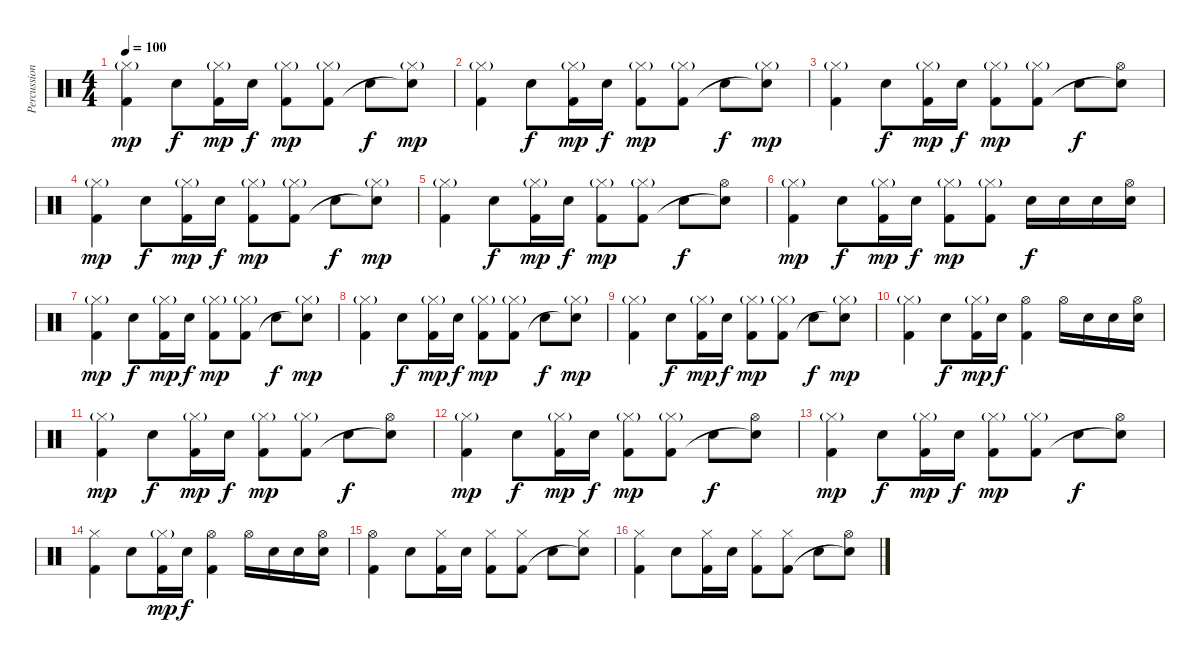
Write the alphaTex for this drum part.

\track ("Percussion" "Percussion") {instrument percussion}
\staff {score}
\articulation defaults
\ts (4 4)
\tempo 100
\clef neutral
\ks c
("Hi-Hat (closed)"{g} "Kick (hit) 2").4{dy mp} "Electric Snare (hit)".8{dy f} ("Hi-Hat (closed)"{g} "Kick (hit) 2").16{dy mp} "Electric Snare (hit)".16{dy f} ("Hi-Hat (closed)"{g} "Kick (hit) 2").8{dy mp} ("Hi-Hat (closed)"{g} "Kick (hit) 2").8 "Electric Snare (hit)".8{dy f} ("Hi-Hat (closed)"{g} "Snare (hit)"{t}).8{dy mp} |
("Hi-Hat (closed)"{g} "Kick (hit) 2").4 "Electric Snare (hit)".8{dy f} ("Hi-Hat (closed)"{g} "Kick (hit) 2").16{dy mp} "Electric Snare (hit)".16{dy f} ("Hi-Hat (closed)"{g} "Kick (hit) 2").8{dy mp} ("Hi-Hat (closed)"{g} "Kick (hit) 2").8 "Electric Snare (hit)".8{dy f} ("Hi-Hat (closed)"{g} "Snare (hit)"{t}).8{dy mp} |
("Hi-Hat (closed)"{g} "Kick (hit) 2").4 "Electric Snare (hit)".8{dy f} ("Hi-Hat (closed)"{g} "Kick (hit) 2").16{dy mp} "Electric Snare (hit)".16{dy f} ("Hi-Hat (closed)"{g} "Kick (hit) 2").8{dy mp} ("Hi-Hat (closed)"{g} "Kick (hit) 2").8 "Electric Snare (hit)".8{dy f} ("Hi-Hat (open)" "Snare (hit)"{t}).8 |
("Hi-Hat (closed)"{g} "Kick (hit) 2").4{dy mp} "Electric Snare (hit)".8{dy f} ("Hi-Hat (closed)"{g} "Kick (hit) 2").16{dy mp} "Electric Snare (hit)".16{dy f} ("Hi-Hat (closed)"{g} "Kick (hit) 2").8{dy mp} ("Hi-Hat (closed)"{g} "Kick (hit) 2").8 "Electric Snare (hit)".8{dy f} ("Hi-Hat (closed)"{g} "Snare (hit)"{t}).8{dy mp} |
("Hi-Hat (closed)"{g} "Kick (hit) 2").4 "Electric Snare (hit)".8{dy f} ("Hi-Hat (closed)"{g} "Kick (hit) 2").16{dy mp} "Electric Snare (hit)".16{dy f} ("Hi-Hat (closed)"{g} "Kick (hit) 2").8{dy mp} ("Hi-Hat (closed)"{g} "Kick (hit) 2").8 "Electric Snare (hit)".8{dy f} ("Hi-Hat (open)" "Snare (hit)"{t}).8 |
("Hi-Hat (closed)"{g} "Kick (hit) 2").4{dy mp} "Electric Snare (hit)".8{dy f} ("Hi-Hat (closed)"{g} "Kick (hit) 2").16{dy mp} "Electric Snare (hit)".16{dy f} ("Hi-Hat (closed)"{g} "Kick (hit) 2").8{dy mp} ("Hi-Hat (closed)"{g} "Kick (hit) 2").8 "Electric Snare (hit)".16{dy f} "Electric Snare (hit)".16 "Electric Snare (hit)".16 ("Hi-Hat (open)" "Electric Snare (hit)").16 |
("Hi-Hat (closed)"{g} "Kick (hit) 2").4{dy mp} "Electric Snare (hit)".8{dy f} ("Hi-Hat (closed)"{g} "Kick (hit) 2").16{dy mp} "Electric Snare (hit)".16{dy f} ("Hi-Hat (closed)"{g} "Kick (hit) 2").8{dy mp} ("Hi-Hat (closed)"{g} "Kick (hit) 2").8 "Electric Snare (hit)".8{dy f} ("Hi-Hat (closed)"{g} "Snare (hit)"{t}).8{dy mp} |
("Hi-Hat (closed)"{g} "Kick (hit) 2").4 "Electric Snare (hit)".8{dy f} ("Hi-Hat (closed)"{g} "Kick (hit) 2").16{dy mp} "Electric Snare (hit)".16{dy f} ("Hi-Hat (closed)"{g} "Kick (hit) 2").8{dy mp} ("Hi-Hat (closed)"{g} "Kick (hit) 2").8 "Electric Snare (hit)".8{dy f} ("Hi-Hat (closed)"{g} "Snare (hit)"{t}).8{dy mp} |
("Hi-Hat (closed)"{g} "Kick (hit) 2").4 "Electric Snare (hit)".8{dy f} ("Hi-Hat (closed)"{g} "Kick (hit) 2").16{dy mp} "Electric Snare (hit)".16{dy f} ("Hi-Hat (closed)"{g} "Kick (hit) 2").8{dy mp} ("Hi-Hat (closed)"{g} "Kick (hit) 2").8 "Electric Snare (hit)".8{dy f} ("Hi-Hat (closed)"{g} "Snare (hit)"{t}).8{dy mp} |
("Hi-Hat (closed)"{g} "Kick (hit) 2").4 "Electric Snare (hit)".8{dy f} ("Hi-Hat (closed)"{g} "Kick (hit) 2").16{dy mp} "Electric Snare (hit)".16{dy f} ("Hi-Hat (open)" "Kick (hit) 2").4 "Hi-Hat (open)".16 "Electric Snare (hit)".16 "Electric Snare (hit)".16 ("Hi-Hat (open)" "Electric Snare (hit)").16 |
("Hi-Hat (closed)"{g} "Kick (hit) 2").4{dy mp} "Electric Snare (hit)".8{dy f} ("Hi-Hat (closed)"{g} "Kick (hit) 2").16{dy mp} "Electric Snare (hit)".16{dy f} ("Hi-Hat (closed)"{g} "Kick (hit) 2").8{dy mp} ("Hi-Hat (closed)"{g} "Kick (hit) 2").8 "Electric Snare (hit)".8{dy f} ("Hi-Hat (open)" "Snare (hit)"{t}).8 |
("Hi-Hat (closed)"{g} "Kick (hit) 2").4{dy mp} "Electric Snare (hit)".8{dy f} ("Hi-Hat (closed)"{g} "Kick (hit) 2").16{dy mp} "Electric Snare (hit)".16{dy f} ("Hi-Hat (closed)"{g} "Kick (hit) 2").8{dy mp} ("Hi-Hat (closed)"{g} "Kick (hit) 2").8 "Electric Snare (hit)".8{dy f} ("Hi-Hat (open)" "Snare (hit)"{t}).8 |
("Hi-Hat (closed)"{g} "Kick (hit) 2").4{dy mp} "Electric Snare (hit)".8{dy f} ("Hi-Hat (closed)"{g} "Kick (hit) 2").16{dy mp} "Electric Snare (hit)".16{dy f} ("Hi-Hat (closed)"{g} "Kick (hit) 2").8{dy mp} ("Hi-Hat (closed)"{g} "Kick (hit) 2").8 "Electric Snare (hit)".8{dy f} ("Hi-Hat (open)" "Snare (hit)"{t}).8 |
("Hi-Hat (closed)" "Kick (hit) 2").4 "Electric Snare (hit)".8 ("Hi-Hat (closed)"{g} "Kick (hit) 2").16{dy mp} "Electric Snare (hit)".16{dy f} ("Hi-Hat (open)" "Kick (hit) 2").4 "Hi-Hat (open)".16 "Electric Snare (hit)".16 "Electric Snare (hit)".16 ("Hi-Hat (open)" "Electric Snare (hit)").16 |
("Hi-Hat (open)" "Kick (hit) 2").4 "Electric Snare (hit)".8 ("Hi-Hat (closed)" "Kick (hit) 2").16 "Electric Snare (hit)".16 ("Hi-Hat (closed)" "Kick (hit) 2").8 ("Hi-Hat (closed)" "Kick (hit) 2").8 "Electric Snare (hit)".8 ("Hi-Hat (closed)" "Snare (hit)"{t}).8 |
("Hi-Hat (closed)" "Kick (hit) 2").4 "Electric Snare (hit)".8 ("Hi-Hat (closed)" "Kick (hit) 2").16 "Electric Snare (hit)".16 ("Hi-Hat (closed)" "Kick (hit) 2").8 ("Hi-Hat (closed)" "Kick (hit) 2").8 "Electric Snare (hit)".8 ("Hi-Hat (open)" "Snare (hit)"{t}).8
